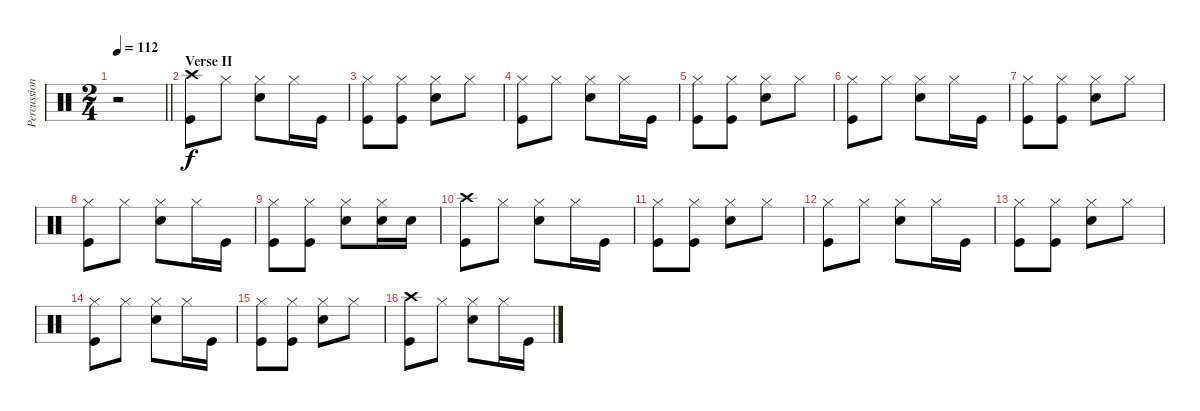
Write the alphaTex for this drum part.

\track ("Percussion" "Percussion") {instrument percussion}
\staff {score}
\articulation defaults
\ts (2 4)
\tempo 112
\clef neutral
\barLineRight lightlight
\ks c
r.2{dy f volume 0} |
\section ("" "Verse II")
("Crash high (hit)" "Kick (hit)").8{volume 13} "Hi-Hat (closed)".8 ("Hi-Hat (closed)" "Electric Snare (hit)").8 "Hi-Hat (closed)".16 "Kick (hit)".16 |
("Hi-Hat (closed)" "Kick (hit)").8 ("Hi-Hat (closed)" "Kick (hit)").8 ("Hi-Hat (closed)" "Electric Snare (hit)").8 "Hi-Hat (closed)".8 |
("Hi-Hat (closed)" "Kick (hit)").8 "Hi-Hat (closed)".8 ("Hi-Hat (closed)" "Electric Snare (hit)").8 "Hi-Hat (closed)".16 "Kick (hit)".16 |
("Hi-Hat (closed)" "Kick (hit)").8 ("Hi-Hat (closed)" "Kick (hit)").8 ("Hi-Hat (closed)" "Electric Snare (hit)").8 "Hi-Hat (closed)".8 |
("Hi-Hat (closed)" "Kick (hit)").8 "Hi-Hat (closed)".8 ("Hi-Hat (closed)" "Electric Snare (hit)").8 "Hi-Hat (closed)".16 "Kick (hit)".16 |
("Hi-Hat (closed)" "Kick (hit)").8 ("Hi-Hat (closed)" "Kick (hit)").8 ("Hi-Hat (closed)" "Electric Snare (hit)").8 "Hi-Hat (closed)".8 |
("Hi-Hat (closed)" "Kick (hit)").8 "Hi-Hat (closed)".8 ("Hi-Hat (closed)" "Electric Snare (hit)").8 "Hi-Hat (closed)".16 "Kick (hit)".16 |
("Hi-Hat (closed)" "Kick (hit)").8 ("Hi-Hat (closed)" "Kick (hit)").8 ("Hi-Hat (closed)" "Electric Snare (hit)").8 ("Hi-Hat (closed)" "Electric Snare (hit)").16 "Electric Snare (hit)".16 |
("Crash high (hit)" "Kick (hit)").8 "Hi-Hat (closed)".8 ("Hi-Hat (closed)" "Electric Snare (hit)").8 "Hi-Hat (closed)".16 "Kick (hit)".16 |
("Hi-Hat (closed)" "Kick (hit)").8 ("Hi-Hat (closed)" "Kick (hit)").8 ("Hi-Hat (closed)" "Electric Snare (hit)").8 "Hi-Hat (closed)".8 |
("Hi-Hat (closed)" "Kick (hit)").8 "Hi-Hat (closed)".8 ("Hi-Hat (closed)" "Electric Snare (hit)").8 "Hi-Hat (closed)".16 "Kick (hit)".16 |
("Hi-Hat (closed)" "Kick (hit)").8 ("Hi-Hat (closed)" "Kick (hit)").8 ("Hi-Hat (closed)" "Electric Snare (hit)").8 "Hi-Hat (closed)".8 |
("Hi-Hat (closed)" "Kick (hit)").8 "Hi-Hat (closed)".8 ("Hi-Hat (closed)" "Electric Snare (hit)").8 "Hi-Hat (closed)".16 "Kick (hit)".16 |
("Hi-Hat (closed)" "Kick (hit)").8 ("Hi-Hat (closed)" "Kick (hit)").8 ("Hi-Hat (closed)" "Electric Snare (hit)").8 "Hi-Hat (closed)".8 |
("Crash high (hit)" "Kick (hit)").8 "Hi-Hat (closed)".8 ("Hi-Hat (closed)" "Electric Snare (hit)").8 "Hi-Hat (closed)".16 "Kick (hit)".16
